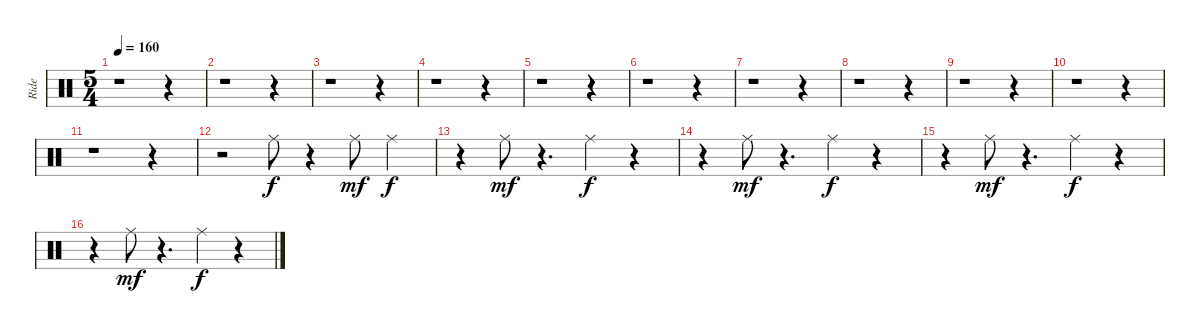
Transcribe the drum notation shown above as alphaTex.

\track ("Ride" "Ride") {instrument percussion}
\staff {score}
\articulation defaults
\ts (5 4)
\tempo 160
\clef neutral
\ks c
r.1{dy f} r.4 |
r.1 r.4 |
r.1 r.4 |
r.1 r.4 |
r.1 r.4 |
r.1 r.4 |
r.1 r.4 |
r.1 r.4 |
r.1 r.4 |
r.1 r.4 |
r.1 r.4 |
r.2 "Ride (middle)".8 r.4 "Ride (middle)".8{dy mf} "Ride (middle)".4{dy f} |
r.4 "Ride (middle)".8{dy mf} r.4{d} "Ride (middle)".4{dy f} r.4 |
r.4 "Ride (middle)".8{dy mf} r.4{d} "Ride (middle)".4{dy f} r.4 |
r.4 "Ride (middle)".8{dy mf} r.4{d} "Ride (middle)".4{dy f} r.4 |
r.4 "Ride (middle)".8{dy mf} r.4{d} "Ride (middle)".4{dy f} r.4
